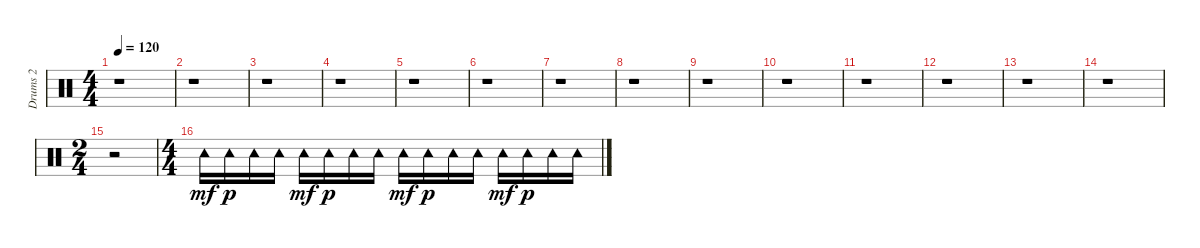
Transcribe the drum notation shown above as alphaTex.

\track ("Drums 2" "Drums 2") {instrument percussion}
\staff {score}
\articulation defaults
\ts (4 4)
\tempo 120
\clef neutral
\ks c
r.1{dy p} |
r.1 |
r.1 |
r.1 |
r.1 |
r.1 |
r.1 |
r.1 |
r.1 |
r.1 |
r.1 |
r.1 |
r.1 |
r.1 |
\ts (2 4)
r.2 |
\ts (4 4)
"Tambourine (hit)".16{dy mf} "Tambourine (hit)".16{dy p} "Tambourine (hit)".16 "Tambourine (hit)".16 "Tambourine (hit)".16{dy mf} "Tambourine (hit)".16{dy p} "Tambourine (hit)".16 "Tambourine (hit)".16 "Tambourine (hit)".16{dy mf} "Tambourine (hit)".16{dy p} "Tambourine (hit)".16 "Tambourine (hit)".16 "Tambourine (hit)".16{dy mf} "Tambourine (hit)".16{dy p} "Tambourine (hit)".16 "Tambourine (hit)".16
